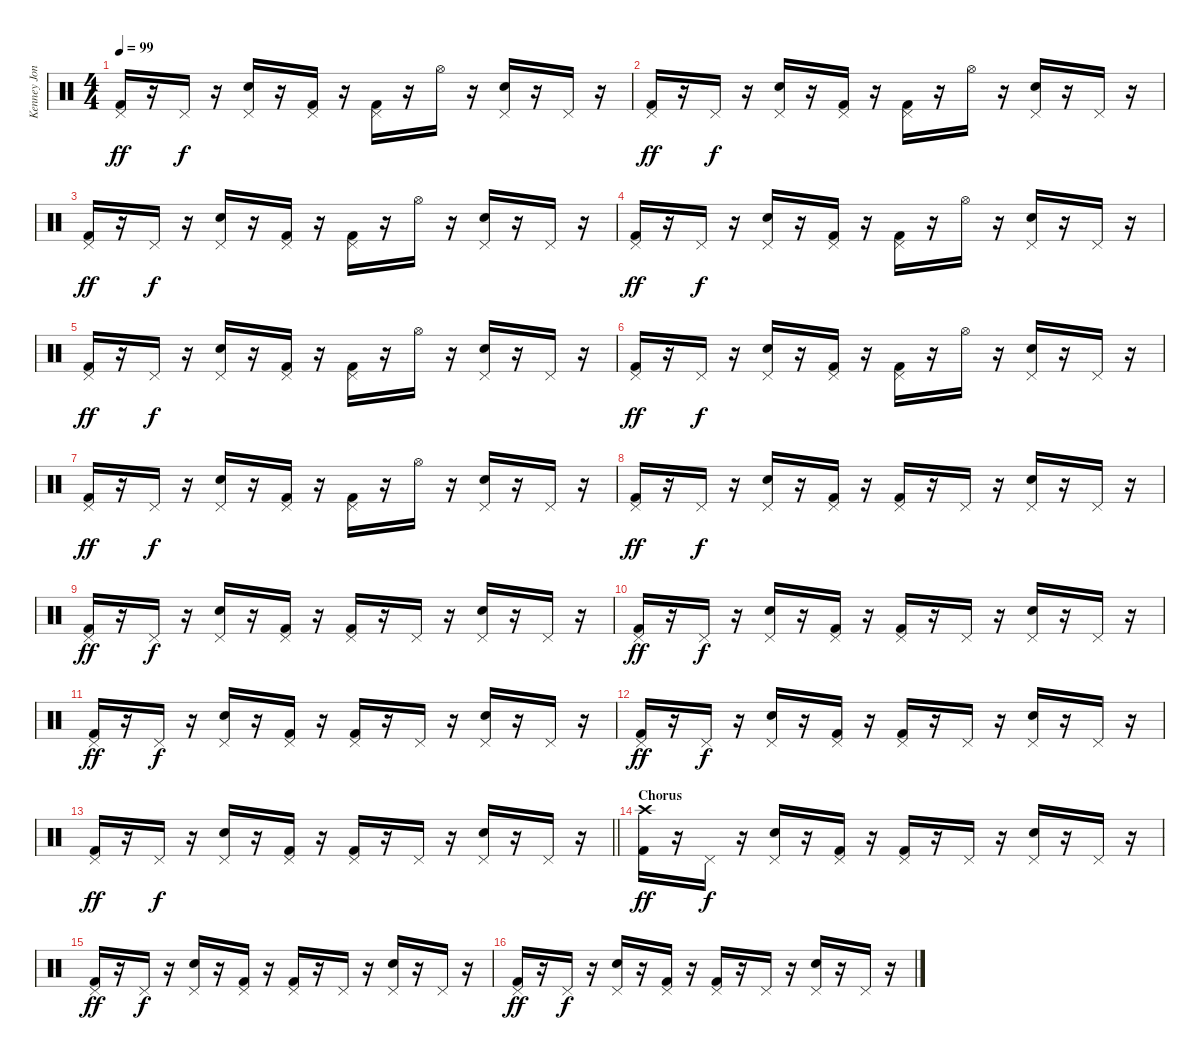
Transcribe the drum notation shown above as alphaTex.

\track ("Kenney Jones" "Kenney Jon") {instrument percussion}
\staff {score}
\articulation defaults
\ts (4 4)
\tempo 99
\clef neutral
\ks c
("Pedal Hi-Hat (hit)" "Kick (hit) 2").16{dy ff} r.16 "Pedal Hi-Hat (hit)".16{dy f} r.16 ("Pedal Hi-Hat (hit)" "Snare (hit) 2").16 r.16 ("Pedal Hi-Hat (hit)" "Kick (hit) 2").16 r.16 ("Pedal Hi-Hat (hit)" "Kick (hit) 2").16 r.16 "Hi-Hat (open)".16 r.16 ("Pedal Hi-Hat (hit)" "Snare (hit) 2").16 r.16 "Pedal Hi-Hat (hit)".16 r.16 |
("Pedal Hi-Hat (hit)" "Kick (hit) 2").16{dy ff} r.16 "Pedal Hi-Hat (hit)".16{dy f} r.16 ("Pedal Hi-Hat (hit)" "Snare (hit) 2").16 r.16 ("Pedal Hi-Hat (hit)" "Kick (hit) 2").16 r.16 ("Pedal Hi-Hat (hit)" "Kick (hit) 2").16 r.16 "Hi-Hat (open)".16 r.16 ("Pedal Hi-Hat (hit)" "Snare (hit) 2").16 r.16 "Pedal Hi-Hat (hit)".16 r.16 |
("Pedal Hi-Hat (hit)" "Kick (hit) 2").16{dy ff} r.16 "Pedal Hi-Hat (hit)".16{dy f} r.16 ("Pedal Hi-Hat (hit)" "Snare (hit) 2").16 r.16 ("Pedal Hi-Hat (hit)" "Kick (hit) 2").16 r.16 ("Pedal Hi-Hat (hit)" "Kick (hit) 2").16 r.16 "Hi-Hat (open)".16 r.16 ("Pedal Hi-Hat (hit)" "Snare (hit) 2").16 r.16 "Pedal Hi-Hat (hit)".16 r.16 |
("Pedal Hi-Hat (hit)" "Kick (hit) 2").16{dy ff} r.16 "Pedal Hi-Hat (hit)".16{dy f} r.16 ("Pedal Hi-Hat (hit)" "Snare (hit) 2").16 r.16 ("Pedal Hi-Hat (hit)" "Kick (hit) 2").16 r.16 ("Pedal Hi-Hat (hit)" "Kick (hit) 2").16 r.16 "Hi-Hat (open)".16 r.16 ("Pedal Hi-Hat (hit)" "Snare (hit) 2").16 r.16 "Pedal Hi-Hat (hit)".16 r.16 |
("Pedal Hi-Hat (hit)" "Kick (hit) 2").16{dy ff} r.16 "Pedal Hi-Hat (hit)".16{dy f} r.16 ("Pedal Hi-Hat (hit)" "Snare (hit) 2").16 r.16 ("Pedal Hi-Hat (hit)" "Kick (hit) 2").16 r.16 ("Pedal Hi-Hat (hit)" "Kick (hit) 2").16 r.16 "Hi-Hat (open)".16 r.16 ("Pedal Hi-Hat (hit)" "Snare (hit) 2").16 r.16 "Pedal Hi-Hat (hit)".16 r.16 |
("Pedal Hi-Hat (hit)" "Kick (hit) 2").16{dy ff} r.16 "Pedal Hi-Hat (hit)".16{dy f} r.16 ("Pedal Hi-Hat (hit)" "Snare (hit) 2").16 r.16 ("Pedal Hi-Hat (hit)" "Kick (hit) 2").16 r.16 ("Pedal Hi-Hat (hit)" "Kick (hit) 2").16 r.16 "Hi-Hat (open)".16 r.16 ("Pedal Hi-Hat (hit)" "Snare (hit) 2").16 r.16 "Pedal Hi-Hat (hit)".16 r.16 |
("Pedal Hi-Hat (hit)" "Kick (hit) 2").16{dy ff} r.16 "Pedal Hi-Hat (hit)".16{dy f} r.16 ("Pedal Hi-Hat (hit)" "Snare (hit) 2").16 r.16 ("Pedal Hi-Hat (hit)" "Kick (hit) 2").16 r.16 ("Pedal Hi-Hat (hit)" "Kick (hit) 2").16 r.16 "Hi-Hat (open)".16 r.16 ("Pedal Hi-Hat (hit)" "Snare (hit) 2").16 r.16 "Pedal Hi-Hat (hit)".16 r.16 |
("Pedal Hi-Hat (hit)" "Kick (hit) 2").16{dy ff} r.16 "Pedal Hi-Hat (hit)".16{dy f} r.16 ("Pedal Hi-Hat (hit)" "Snare (hit) 2").16 r.16 ("Pedal Hi-Hat (hit)" "Kick (hit) 2").16 r.16 ("Pedal Hi-Hat (hit)" "Kick (hit) 2").16 r.16 "Pedal Hi-Hat (hit)".16 r.16 ("Pedal Hi-Hat (hit)" "Snare (hit) 2").16 r.16 "Pedal Hi-Hat (hit)".16 r.16 |
("Pedal Hi-Hat (hit)" "Kick (hit) 2").16{dy ff} r.16 "Pedal Hi-Hat (hit)".16{dy f} r.16 ("Pedal Hi-Hat (hit)" "Snare (hit) 2").16 r.16 ("Pedal Hi-Hat (hit)" "Kick (hit) 2").16 r.16 ("Pedal Hi-Hat (hit)" "Kick (hit) 2").16 r.16 "Pedal Hi-Hat (hit)".16 r.16 ("Pedal Hi-Hat (hit)" "Snare (hit) 2").16 r.16 "Pedal Hi-Hat (hit)".16 r.16 |
("Pedal Hi-Hat (hit)" "Kick (hit) 2").16{dy ff} r.16 "Pedal Hi-Hat (hit)".16{dy f} r.16 ("Pedal Hi-Hat (hit)" "Snare (hit) 2").16 r.16 ("Pedal Hi-Hat (hit)" "Kick (hit) 2").16 r.16 ("Pedal Hi-Hat (hit)" "Kick (hit) 2").16 r.16 "Pedal Hi-Hat (hit)".16 r.16 ("Pedal Hi-Hat (hit)" "Snare (hit) 2").16 r.16 "Pedal Hi-Hat (hit)".16 r.16 |
("Pedal Hi-Hat (hit)" "Kick (hit) 2").16{dy ff} r.16 "Pedal Hi-Hat (hit)".16{dy f} r.16 ("Pedal Hi-Hat (hit)" "Snare (hit) 2").16 r.16 ("Pedal Hi-Hat (hit)" "Kick (hit) 2").16 r.16 ("Pedal Hi-Hat (hit)" "Kick (hit) 2").16 r.16 "Pedal Hi-Hat (hit)".16 r.16 ("Pedal Hi-Hat (hit)" "Snare (hit) 2").16 r.16 "Pedal Hi-Hat (hit)".16 r.16 |
("Pedal Hi-Hat (hit)" "Kick (hit) 2").16{dy ff} r.16 "Pedal Hi-Hat (hit)".16{dy f} r.16 ("Pedal Hi-Hat (hit)" "Snare (hit) 2").16 r.16 ("Pedal Hi-Hat (hit)" "Kick (hit) 2").16 r.16 ("Pedal Hi-Hat (hit)" "Kick (hit) 2").16 r.16 "Pedal Hi-Hat (hit)".16 r.16 ("Pedal Hi-Hat (hit)" "Snare (hit) 2").16 r.16 "Pedal Hi-Hat (hit)".16 r.16 |
\barLineRight lightlight
("Pedal Hi-Hat (hit)" "Kick (hit) 2").16{dy ff} r.16 "Pedal Hi-Hat (hit)".16{dy f} r.16 ("Pedal Hi-Hat (hit)" "Snare (hit) 2").16 r.16 ("Pedal Hi-Hat (hit)" "Kick (hit) 2").16 r.16 ("Pedal Hi-Hat (hit)" "Kick (hit) 2").16 r.16 "Pedal Hi-Hat (hit)".16 r.16 ("Pedal Hi-Hat (hit)" "Snare (hit) 2").16 r.16 "Pedal Hi-Hat (hit)".16 r.16 |
\section ("" "Chorus")
("Crash high (hit)" "Kick (hit) 2").16{dy ff} r.16 "Pedal Hi-Hat (hit)".16{dy f} r.16 ("Pedal Hi-Hat (hit)" "Snare (hit) 2").16 r.16 ("Pedal Hi-Hat (hit)" "Kick (hit) 2").16 r.16 ("Pedal Hi-Hat (hit)" "Kick (hit) 2").16 r.16 "Pedal Hi-Hat (hit)".16 r.16 ("Pedal Hi-Hat (hit)" "Snare (hit) 2").16 r.16 "Pedal Hi-Hat (hit)".16 r.16 |
("Pedal Hi-Hat (hit)" "Kick (hit) 2").16{dy ff} r.16 "Pedal Hi-Hat (hit)".16{dy f} r.16 ("Pedal Hi-Hat (hit)" "Snare (hit) 2").16 r.16 ("Pedal Hi-Hat (hit)" "Kick (hit) 2").16 r.16 ("Pedal Hi-Hat (hit)" "Kick (hit) 2").16 r.16 "Pedal Hi-Hat (hit)".16 r.16 ("Pedal Hi-Hat (hit)" "Snare (hit) 2").16 r.16 "Pedal Hi-Hat (hit)".16 r.16 |
("Pedal Hi-Hat (hit)" "Kick (hit) 2").16{dy ff} r.16 "Pedal Hi-Hat (hit)".16{dy f} r.16 ("Pedal Hi-Hat (hit)" "Snare (hit) 2").16 r.16 ("Pedal Hi-Hat (hit)" "Kick (hit) 2").16 r.16 ("Pedal Hi-Hat (hit)" "Kick (hit) 2").16 r.16 "Pedal Hi-Hat (hit)".16 r.16 ("Pedal Hi-Hat (hit)" "Snare (hit) 2").16 r.16 "Pedal Hi-Hat (hit)".16 r.16
